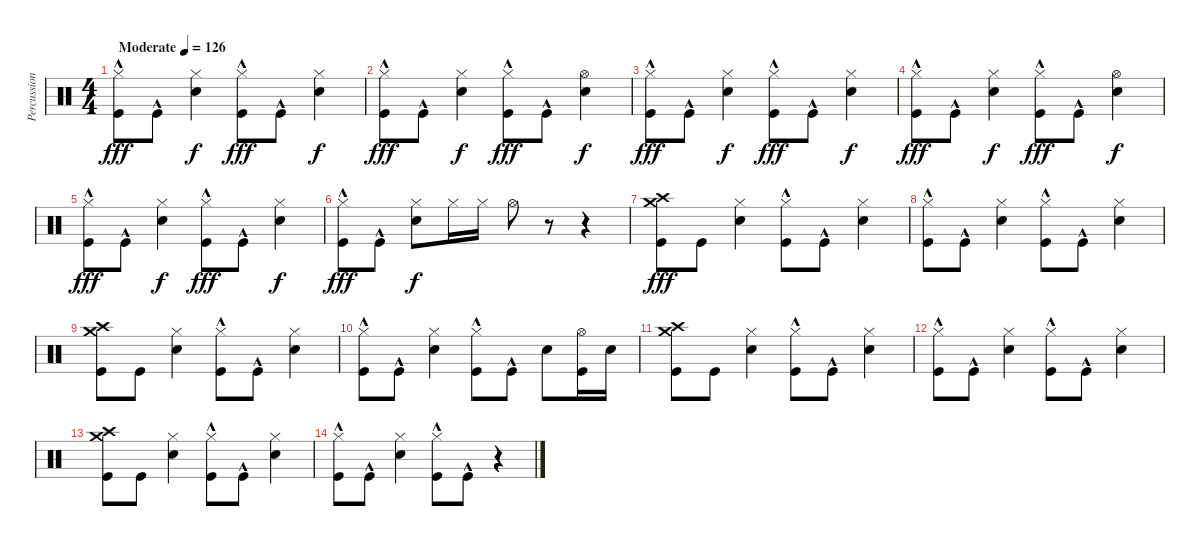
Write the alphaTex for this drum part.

\track ("Percussion" "Percussion") {instrument percussion}
\staff {score}
\articulation defaults
\ts (4 4)
\tempo (126 "Moderate")
\clef neutral
\ks c
("Hi-Hat (closed)" "Kick (hit)"{hac}).8{dy fff} "Kick (hit)"{hac}.8 ("Hi-Hat (closed)" "Snare (hit) 2").4{dy f} ("Hi-Hat (closed)" "Kick (hit)"{hac}).8{dy fff} "Kick (hit)"{hac}.8 ("Hi-Hat (closed)" "Snare (hit) 2").4{dy f} |
("Hi-Hat (closed)" "Kick (hit)"{hac}).8{dy fff} "Kick (hit)"{hac}.8 ("Hi-Hat (closed)" "Snare (hit) 2").4{dy f} ("Hi-Hat (closed)" "Kick (hit)"{hac}).8{dy fff} "Kick (hit)"{hac}.8 ("Hi-Hat (open)" "Snare (hit) 2").4{dy f} |
("Hi-Hat (closed)" "Kick (hit)"{hac}).8{dy fff} "Kick (hit)"{hac}.8 ("Hi-Hat (closed)" "Snare (hit) 2").4{dy f} ("Hi-Hat (closed)" "Kick (hit)"{hac}).8{dy fff} "Kick (hit)"{hac}.8 ("Hi-Hat (closed)" "Snare (hit) 2").4{dy f} |
("Hi-Hat (closed)" "Kick (hit)"{hac}).8{dy fff} "Kick (hit)"{hac}.8 ("Hi-Hat (closed)" "Snare (hit) 2").4{dy f} ("Hi-Hat (closed)" "Kick (hit)"{hac}).8{dy fff} "Kick (hit)"{hac}.8 ("Hi-Hat (open)" "Snare (hit) 2").4{dy f} |
("Hi-Hat (closed)" "Kick (hit)"{hac}).8{dy fff} "Kick (hit)"{hac}.8 ("Hi-Hat (closed)" "Snare (hit) 2").4{dy f} ("Hi-Hat (closed)" "Kick (hit)"{hac}).8{dy fff} "Kick (hit)"{hac}.8 ("Hi-Hat (closed)" "Snare (hit) 2").4{dy f} |
("Hi-Hat (closed)" "Kick (hit)"{hac}).8{dy fff} "Kick (hit)"{hac}.8 ("Hi-Hat (closed)" "Snare (hit) 2").8{dy f} "Hi-Hat (closed)".16 "Hi-Hat (closed)".16 "Hi-Hat (open)".8 r.8 r.4 |
("Crash medium (hit)" "Crash high (hit)" "Kick (hit)").8{dy fff} "Kick (hit)".8 ("Hi-Hat (closed)" "Snare (hit) 2").4 ("Hi-Hat (closed)" "Kick (hit)"{hac}).8 "Kick (hit)"{hac}.8 ("Hi-Hat (closed)" "Snare (hit) 2").4 |
("Hi-Hat (closed)" "Kick (hit)"{hac}).8 "Kick (hit)"{hac}.8 ("Hi-Hat (closed)" "Snare (hit) 2").4 ("Hi-Hat (closed)" "Kick (hit)"{hac}).8 "Kick (hit)"{hac}.8 ("Hi-Hat (closed)" "Snare (hit) 2").4 |
("Crash medium (hit)" "Crash high (hit)" "Kick (hit)").8 "Kick (hit)".8 ("Hi-Hat (closed)" "Snare (hit) 2").4 ("Hi-Hat (closed)" "Kick (hit)"{hac}).8 "Kick (hit)"{hac}.8 ("Hi-Hat (closed)" "Snare (hit) 2").4 |
("Hi-Hat (closed)" "Kick (hit)"{hac}).8 "Kick (hit)"{hac}.8 ("Hi-Hat (closed)" "Snare (hit) 2").4 ("Hi-Hat (closed)" "Kick (hit)"{hac}).8 "Kick (hit)"{hac}.8 "Snare (hit) 2".8 ("Hi-Hat (open)" "Kick (hit)").16 "Snare (hit) 2".16 |
("Crash medium (hit)" "Crash high (hit)" "Kick (hit)").8 "Kick (hit)".8 ("Hi-Hat (closed)" "Snare (hit) 2").4 ("Hi-Hat (closed)" "Kick (hit)"{hac}).8 "Kick (hit)"{hac}.8 ("Hi-Hat (closed)" "Snare (hit) 2").4 |
("Hi-Hat (closed)" "Kick (hit)"{hac}).8 "Kick (hit)"{hac}.8 ("Hi-Hat (closed)" "Snare (hit) 2").4 ("Hi-Hat (closed)" "Kick (hit)"{hac}).8 "Kick (hit)"{hac}.8 ("Hi-Hat (closed)" "Snare (hit) 2").4 |
("Crash medium (hit)" "Crash high (hit)" "Kick (hit)").8 "Kick (hit)".8 ("Hi-Hat (closed)" "Snare (hit) 2").4 ("Hi-Hat (closed)" "Kick (hit)"{hac}).8 "Kick (hit)"{hac}.8 ("Hi-Hat (closed)" "Snare (hit) 2").4 |
("Hi-Hat (closed)" "Kick (hit)"{hac}).8 "Kick (hit)"{hac}.8 ("Hi-Hat (closed)" "Snare (hit) 2").4 ("Hi-Hat (closed)" "Kick (hit)"{hac}).8 "Kick (hit)"{hac}.8 r.4
